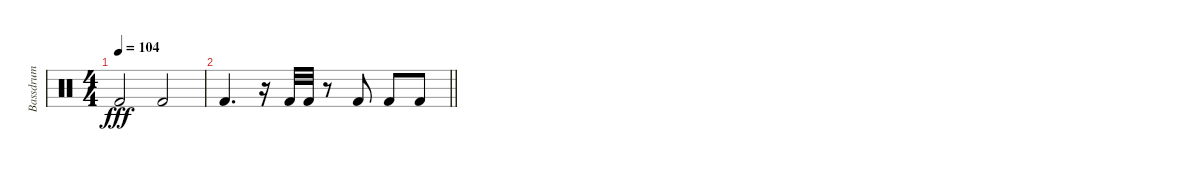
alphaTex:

\track ("Bassdrum" "Bassdrum") {instrument percussion}
\staff {score}
\articulation defaults
\ts (4 4)
\tempo 104
\clef neutral
\ks c "Kick (hit) 2".2{dy fff} "Kick (hit) 2".2
|
\barLineRight lightlight "Kick (hit) 2".4{d}
r.16 "Kick (hit) 2".32 "Kick (hit) 2".32 r.8 "Kick (hit) 2".8 "Kick (hit) 2".8 "Kick (hit) 2".8
